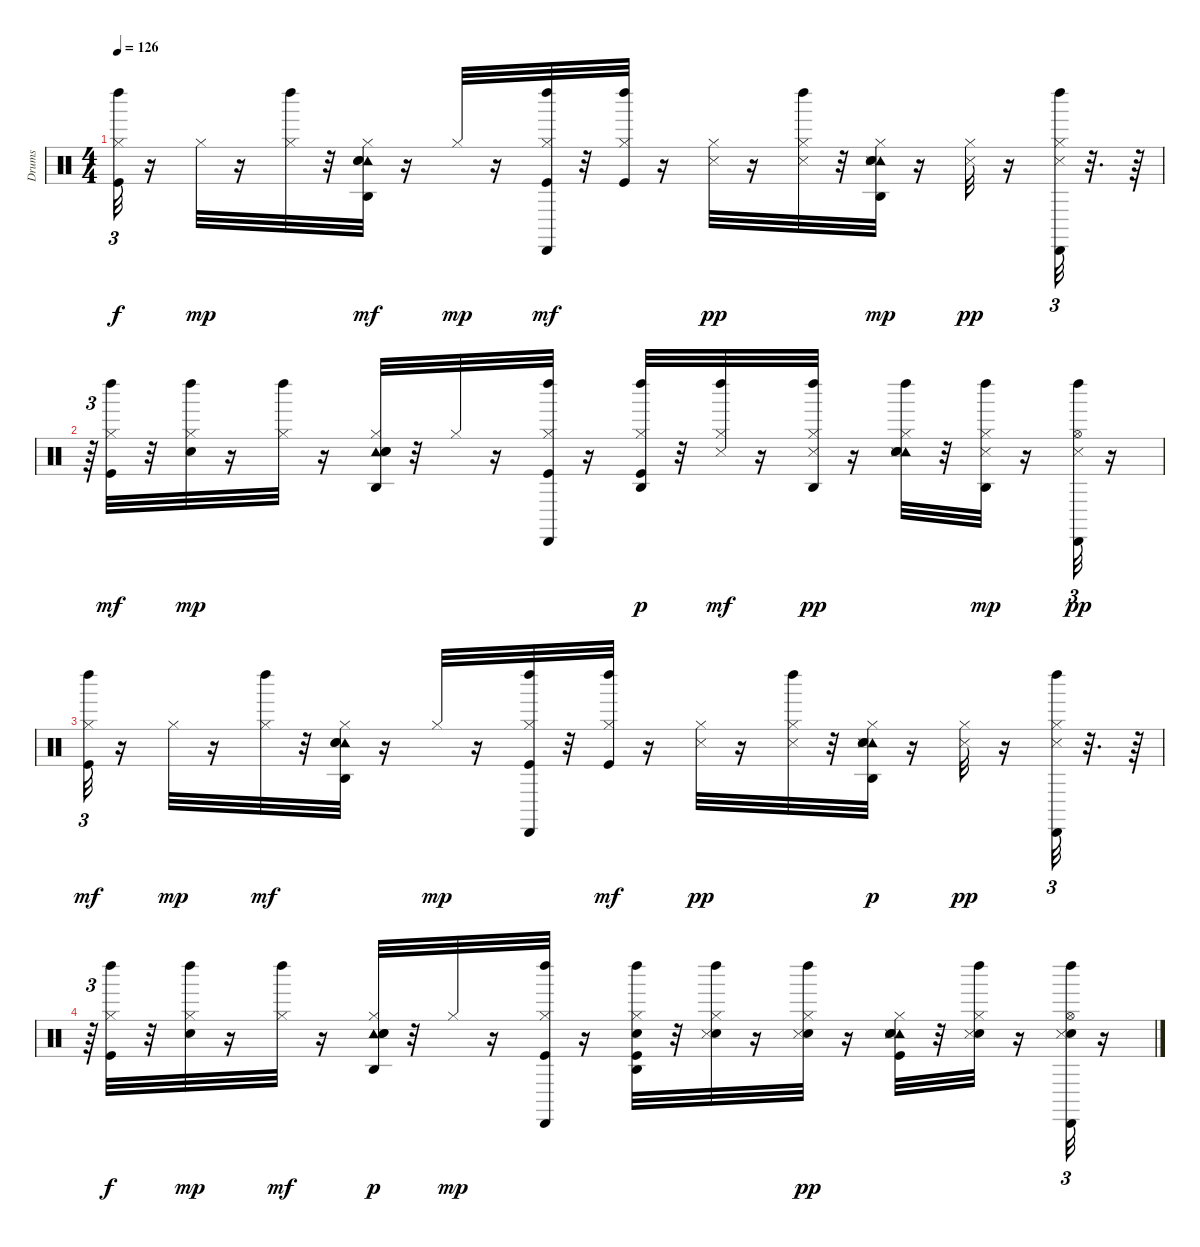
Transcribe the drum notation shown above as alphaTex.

\track ("Drums" "Drums") {instrument percussion}
\staff {score}
\articulation defaults
\ts (4 4)
\tempo 126
\clef neutral
\ks c
("Kick (hit)" "Hi-Hat (closed)" "Left Maraca (hit)").32{tu (3 2) dy f} r.16 "Hi-Hat (closed)".32{dy mp} r.16 ("Hi-Hat (closed)" "Left Maraca (hit)").32 r.32 ("Hi-Hat (closed)" "Tambourine (hit)" "Agogo high (hit)" "Snare (hit) 2" "Hand Clap (hit)").32{dy mf} r.16 "Hi-Hat (closed)".32{dy mp} r.16 ("Cabasa (hit)" "Kick (hit)" "Hi-Hat (closed)" "Left Maraca (hit)").32{dy mf} r.32 ("Hi-Hat (closed)" "Kick (hit)" "Left Maraca (hit)").32 r.16 ("Hi-Hat (closed)" "Snare (side stick) 3").32{dy pp} r.16 ("Hi-Hat (closed)" "Left Maraca (hit)" "Snare (side stick) 3").32 r.32 ("Hi-Hat (closed)" "Tambourine (hit)" "Hand Clap (hit)" "Snare (hit) 2" "Snare (side stick) 3" "Agogo high (hit)").32{dy mp} r.16 ("Hi-Hat (closed)" "Snare (side stick) 3").32{dy pp} r.16 ("Cabasa (hit)" "Hi-Hat (closed)" "Left Maraca (hit)" "Snare (side stick) 3").32{tu (3 2)} r.32{d} r.64 |
r.64{tu (3 2)} ("Kick (hit)" "Hi-Hat (closed)" "Left Maraca (hit)").32{dy mf} r.32 ("Electric Snare (hit)" "Hi-Hat (closed)" "Left Maraca (hit)").32{dy mp} r.16 ("Left Maraca (hit)" "Hi-Hat (closed)").32 r.16 ("Tambourine (hit)" "Snare (hit) 2" "Hi-Hat (closed)" "Agogo high (hit)" "Hand Clap (hit)").32 r.32 "Hi-Hat (closed)".32 r.16 ("Kick (hit)" "Hi-Hat (closed)" "Left Maraca (hit)" "Cabasa (hit)").32 r.16 ("Kick (hit)" "Hi-Hat (closed)" "Left Maraca (hit)" "Agogo high (hit)").32{dy p} r.32 ("Hi-Hat (closed)" "Snare (side stick) 3" "Left Maraca (hit)").32{dy mf} r.16 ("Hi-Hat (closed)" "Left Maraca (hit)" "Agogo high (hit)" "Snare (side stick) 3").32{dy pp} r.16 ("Hi-Hat (closed)" "Tambourine (hit)" "Hand Clap (hit)" "Snare (hit) 2" "Snare (side stick) 3" "Left Maraca (hit)").32 r.32 ("Hi-Hat (closed)" "Left Maraca (hit)" "Snare (side stick) 3" "Agogo high (hit)").32{dy mp} r.16 ("Hi-Hat (open)" "Left Maraca (hit)" "Cabasa (hit)" "Snare (side stick) 3").32{tu (3 2) dy pp} r.16 |
("Kick (hit)" "Hi-Hat (closed)" "Left Maraca (hit)").32{tu (3 2) dy mf} r.16 "Hi-Hat (closed)".32{dy mp} r.16 ("Hi-Hat (closed)" "Left Maraca (hit)").32{dy mf} r.32 ("Hi-Hat (closed)" "Tambourine (hit)" "Agogo high (hit)" "Snare (hit) 2" "Hand Clap (hit)").32 r.16 "Hi-Hat (closed)".32{dy mp} r.16 ("Cabasa (hit)" "Kick (hit)" "Hi-Hat (closed)" "Left Maraca (hit)").32 r.32 ("Hi-Hat (closed)" "Kick (hit)" "Left Maraca (hit)").32{dy mf} r.16 ("Hi-Hat (closed)" "Snare (side stick) 3").32{dy pp} r.16 ("Hi-Hat (closed)" "Left Maraca (hit)" "Snare (side stick) 3").32 r.32 ("Hi-Hat (closed)" "Tambourine (hit)" "Hand Clap (hit)" "Snare (hit) 2" "Snare (side stick) 3" "Agogo high (hit)").32{dy p} r.16 ("Hi-Hat (closed)" "Snare (side stick) 3").32{dy pp} r.16 ("Cabasa (hit)" "Hi-Hat (closed)" "Left Maraca (hit)" "Snare (side stick) 3").32{tu (3 2)} r.32{d} r.64 |
r.64{tu (3 2)} ("Kick (hit)" "Hi-Hat (closed)" "Left Maraca (hit)").32{dy f} r.32 ("Electric Snare (hit)" "Hi-Hat (closed)" "Left Maraca (hit)").32{dy mp} r.16 ("Left Maraca (hit)" "Hi-Hat (closed)").32{dy mf} r.16 ("Tambourine (hit)" "Snare (hit) 2" "Hi-Hat (closed)" "Agogo high (hit)" "Hand Clap (hit)").32{dy p} r.32 "Hi-Hat (closed)".32{dy mp} r.16 ("Kick (hit)" "Hi-Hat (closed)" "Left Maraca (hit)" "Cabasa (hit)").32 r.16 ("Kick (hit)" "Snare (hit) 2" "Hi-Hat (closed)" "Left Maraca (hit)" "Agogo high (hit)").32 r.32 ("Hi-Hat (closed)" "Snare (hit) 2" "Snare (side stick) 3" "Left Maraca (hit)").32 r.16 ("Snare (hit) 2" "Hi-Hat (closed)" "Left Maraca (hit)" "Snare (side stick) 3").32{dy pp} r.16 ("Hi-Hat (closed)" "Tambourine (hit)" "Hand Clap (hit)" "Kick (hit)" "Snare (hit) 2" "Snare (side stick) 3").32 r.32 ("Hi-Hat (closed)" "Left Maraca (hit)" "Snare (hit) 2" "Snare (side stick) 3").32 r.16 ("Hi-Hat (open)" "Left Maraca (hit)" "Cabasa (hit)" "Snare (hit) 2" "Snare (side stick) 3").32{tu (3 2)} r.16
